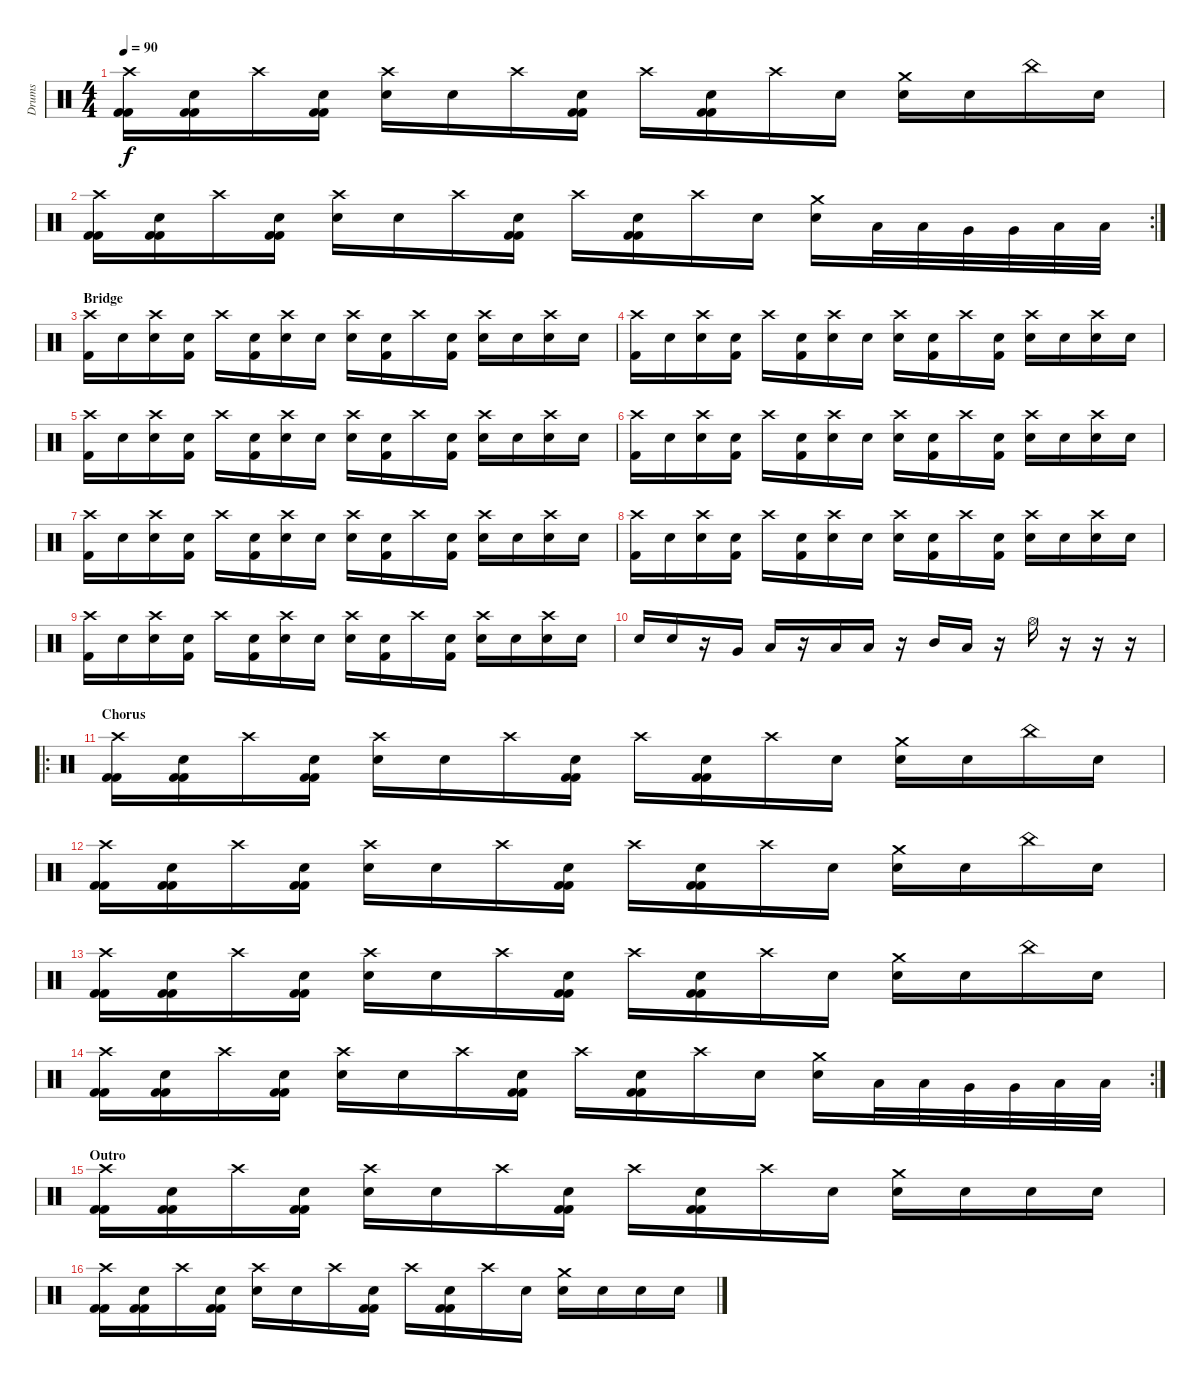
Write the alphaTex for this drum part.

\track ("Drums" "Drums") {instrument percussion}
\staff {score}
\articulation defaults
\ts (4 4)
\tempo 90
\clef neutral
\ks c
("Crash high (hit)" "Kick (hit) 2" "Kick (hit) 2").16{dy f} ("Snare (hit)"{x} "Kick (hit) 2" "Kick (hit) 2").16 "Crash high (hit)".16 ("Snare (hit)"{x} "Kick (hit) 2" "Kick (hit) 2").16 ("Crash high (hit)" "Electric Snare (hit)").16 "Snare (hit)"{x}.16 "Crash high (hit)".16 ("Snare (hit)"{x} "Kick (hit) 2" "Kick (hit) 2").16 "Crash high (hit)".16 ("Snare (hit)"{x} "Kick (hit) 2" "Kick (hit) 2").16 "Crash high (hit)".16 "Snare (hit)"{x}.16 ("Crash medium (hit)" "Electric Snare (hit)").16 "Snare (hit)"{x}.16 "China (hit)".16 "Snare (hit)"{x}.16 |
\rc 2
("Crash high (hit)" "Kick (hit) 2" "Kick (hit) 2").16 ("Snare (hit)"{x} "Kick (hit) 2" "Kick (hit) 2").16 "Crash high (hit)".16 ("Snare (hit)"{x} "Kick (hit) 2" "Kick (hit) 2").16 ("Crash high (hit)" "Electric Snare (hit)").16 "Snare (hit)"{x}.16 "Crash high (hit)".16 ("Snare (hit)"{x} "Kick (hit) 2" "Kick (hit) 2").16 "Crash high (hit)".16 ("Snare (hit)"{x} "Kick (hit) 2" "Kick (hit) 2").16 "Crash high (hit)".16 "Snare (hit)"{x}.16 ("Crash medium (hit)" "Electric Snare (hit)").16 "Low Floor Tom (hit)".32 "Low Floor Tom (hit)".32 "Very Low Tom (hit)".32 "Very Low Tom (hit)".32 "Low Tom (hit)".32 "Low Tom (hit)".32 |
\section ("" "Bridge")
("Crash high (hit)" "Kick (hit) 2").16 "Snare (hit)"{x}.16 ("Crash high (hit)" "Electric Snare (hit)").16 ("Snare (hit)"{x} "Kick (hit) 2").16 "Crash high (hit)".16 ("Snare (hit)"{x} "Kick (hit) 2").16 ("Crash high (hit)" "Electric Snare (hit)").16 "Snare (hit)"{x}.16 ("Crash high (hit)" "Electric Snare (hit)").16 ("Snare (hit)"{x} "Kick (hit) 2").16 "Crash high (hit)".16 ("Snare (hit)"{x} "Kick (hit) 2").16 ("Crash high (hit)" "Electric Snare (hit)").16 "Snare (hit)"{x}.16 ("Crash high (hit)" "Electric Snare (hit)").16 "Snare (hit)"{x}.16 |
("Crash high (hit)" "Kick (hit) 2").16 "Snare (hit)"{x}.16 ("Crash high (hit)" "Electric Snare (hit)").16 ("Snare (hit)"{x} "Kick (hit) 2").16 "Crash high (hit)".16 ("Snare (hit)"{x} "Kick (hit) 2").16 ("Crash high (hit)" "Electric Snare (hit)").16 "Snare (hit)"{x}.16 ("Crash high (hit)" "Electric Snare (hit)").16 ("Snare (hit)"{x} "Kick (hit) 2").16 "Crash high (hit)".16 ("Snare (hit)"{x} "Kick (hit) 2").16 ("Crash high (hit)" "Electric Snare (hit)").16 "Snare (hit)"{x}.16 ("Crash high (hit)" "Electric Snare (hit)").16 "Snare (hit)"{x}.16 |
("Crash high (hit)" "Kick (hit) 2").16 "Snare (hit)"{x}.16 ("Crash high (hit)" "Electric Snare (hit)").16 ("Snare (hit)"{x} "Kick (hit) 2").16 "Crash high (hit)".16 ("Snare (hit)"{x} "Kick (hit) 2").16 ("Crash high (hit)" "Electric Snare (hit)").16 "Snare (hit)"{x}.16 ("Crash high (hit)" "Electric Snare (hit)").16 ("Snare (hit)"{x} "Kick (hit) 2").16 "Crash high (hit)".16 ("Snare (hit)"{x} "Kick (hit) 2").16 ("Crash high (hit)" "Electric Snare (hit)").16 "Snare (hit)"{x}.16 ("Crash high (hit)" "Electric Snare (hit)").16 "Snare (hit)"{x}.16 |
("Crash high (hit)" "Kick (hit) 2").16 "Snare (hit)"{x}.16 ("Crash high (hit)" "Electric Snare (hit)").16 ("Snare (hit)"{x} "Kick (hit) 2").16 "Crash high (hit)".16 ("Snare (hit)"{x} "Kick (hit) 2").16 ("Crash high (hit)" "Electric Snare (hit)").16 "Snare (hit)"{x}.16 ("Crash high (hit)" "Electric Snare (hit)").16 ("Snare (hit)"{x} "Kick (hit) 2").16 "Crash high (hit)".16 ("Snare (hit)"{x} "Kick (hit) 2").16 ("Crash high (hit)" "Electric Snare (hit)").16 "Snare (hit)"{x}.16 ("Crash high (hit)" "Electric Snare (hit)").16 "Snare (hit)"{x}.16 |
("Crash high (hit)" "Kick (hit) 2").16 "Snare (hit)"{x}.16 ("Crash high (hit)" "Electric Snare (hit)").16 ("Snare (hit)"{x} "Kick (hit) 2").16 "Crash high (hit)".16 ("Snare (hit)"{x} "Kick (hit) 2").16 ("Crash high (hit)" "Electric Snare (hit)").16 "Snare (hit)"{x}.16 ("Crash high (hit)" "Electric Snare (hit)").16 ("Snare (hit)"{x} "Kick (hit) 2").16 "Crash high (hit)".16 ("Snare (hit)"{x} "Kick (hit) 2").16 ("Crash high (hit)" "Electric Snare (hit)").16 "Snare (hit)"{x}.16 ("Crash high (hit)" "Electric Snare (hit)").16 "Snare (hit)"{x}.16 |
("Crash high (hit)" "Kick (hit) 2").16 "Snare (hit)"{x}.16 ("Crash high (hit)" "Electric Snare (hit)").16 ("Snare (hit)"{x} "Kick (hit) 2").16 "Crash high (hit)".16 ("Snare (hit)"{x} "Kick (hit) 2").16 ("Crash high (hit)" "Electric Snare (hit)").16 "Snare (hit)"{x}.16 ("Crash high (hit)" "Electric Snare (hit)").16 ("Snare (hit)"{x} "Kick (hit) 2").16 "Crash high (hit)".16 ("Snare (hit)"{x} "Kick (hit) 2").16 ("Crash high (hit)" "Electric Snare (hit)").16 "Snare (hit)"{x}.16 ("Crash high (hit)" "Electric Snare (hit)").16 "Snare (hit)"{x}.16 |
("Crash high (hit)" "Kick (hit) 2").16 "Snare (hit)"{x}.16 ("Crash high (hit)" "Electric Snare (hit)").16 ("Snare (hit)"{x} "Kick (hit) 2").16 "Crash high (hit)".16 ("Snare (hit)"{x} "Kick (hit) 2").16 ("Crash high (hit)" "Electric Snare (hit)").16 "Snare (hit)"{x}.16 ("Crash high (hit)" "Electric Snare (hit)").16 ("Snare (hit)"{x} "Kick (hit) 2").16 "Crash high (hit)".16 ("Snare (hit)"{x} "Kick (hit) 2").16 ("Crash high (hit)" "Electric Snare (hit)").16 "Snare (hit)"{x}.16 ("Crash high (hit)" "Electric Snare (hit)").16 "Snare (hit)"{x}.16 |
"Electric Snare (hit)".16 "Electric Snare (hit)".16 r.16 "Very Low Tom (hit)".16 "Low Floor Tom (hit)".16 r.16 "Low Tom (hit)".16 "Low Floor Tom (hit)".16 r.16 "Mid Tom (hit)".16 "Low Floor Tom (hit)".16 r.16 "Hi-Hat (open)".16 r.16 r.16 r.16 |
\ro
\section ("" "Chorus")
("Crash high (hit)" "Kick (hit) 2" "Kick (hit) 2").16 ("Snare (hit)"{x} "Kick (hit) 2" "Kick (hit) 2").16 "Crash high (hit)".16 ("Snare (hit)"{x} "Kick (hit) 2" "Kick (hit) 2").16 ("Crash high (hit)" "Electric Snare (hit)").16 "Snare (hit)"{x}.16 "Crash high (hit)".16 ("Snare (hit)"{x} "Kick (hit) 2" "Kick (hit) 2").16 "Crash high (hit)".16 ("Snare (hit)"{x} "Kick (hit) 2" "Kick (hit) 2").16 "Crash high (hit)".16 "Snare (hit)"{x}.16 ("Crash medium (hit)" "Electric Snare (hit)").16 "Snare (hit)"{x}.16 "China (hit)".16 "Snare (hit)"{x}.16 |
("Crash high (hit)" "Kick (hit) 2" "Kick (hit) 2").16 ("Snare (hit)"{x} "Kick (hit) 2" "Kick (hit) 2").16 "Crash high (hit)".16 ("Snare (hit)"{x} "Kick (hit) 2" "Kick (hit) 2").16 ("Crash high (hit)" "Electric Snare (hit)").16 "Snare (hit)"{x}.16 "Crash high (hit)".16 ("Snare (hit)"{x} "Kick (hit) 2" "Kick (hit) 2").16 "Crash high (hit)".16 ("Snare (hit)"{x} "Kick (hit) 2" "Kick (hit) 2").16 "Crash high (hit)".16 "Snare (hit)"{x}.16 ("Crash medium (hit)" "Electric Snare (hit)").16 "Snare (hit)"{x}.16 "China (hit)".16 "Snare (hit)"{x}.16 |
("Crash high (hit)" "Kick (hit) 2" "Kick (hit) 2").16 ("Snare (hit)"{x} "Kick (hit) 2" "Kick (hit) 2").16 "Crash high (hit)".16 ("Snare (hit)"{x} "Kick (hit) 2" "Kick (hit) 2").16 ("Crash high (hit)" "Electric Snare (hit)").16 "Snare (hit)"{x}.16 "Crash high (hit)".16 ("Snare (hit)"{x} "Kick (hit) 2" "Kick (hit) 2").16 "Crash high (hit)".16 ("Snare (hit)"{x} "Kick (hit) 2" "Kick (hit) 2").16 "Crash high (hit)".16 "Snare (hit)"{x}.16 ("Crash medium (hit)" "Electric Snare (hit)").16 "Snare (hit)"{x}.16 "China (hit)".16 "Snare (hit)"{x}.16 |
\rc 2
("Crash high (hit)" "Kick (hit) 2" "Kick (hit) 2").16 ("Snare (hit)"{x} "Kick (hit) 2" "Kick (hit) 2").16 "Crash high (hit)".16 ("Snare (hit)"{x} "Kick (hit) 2" "Kick (hit) 2").16 ("Crash high (hit)" "Electric Snare (hit)").16 "Snare (hit)"{x}.16 "Crash high (hit)".16 ("Snare (hit)"{x} "Kick (hit) 2" "Kick (hit) 2").16 "Crash high (hit)".16 ("Snare (hit)"{x} "Kick (hit) 2" "Kick (hit) 2").16 "Crash high (hit)".16 "Snare (hit)"{x}.16 ("Crash medium (hit)" "Electric Snare (hit)").16 "Low Floor Tom (hit)".32 "Low Floor Tom (hit)".32 "Very Low Tom (hit)".32 "Very Low Tom (hit)".32 "Low Tom (hit)".32 "Low Tom (hit)".32 |
\section ("" "Outro")
("Crash high (hit)" "Kick (hit) 2" "Kick (hit) 2").16 ("Snare (hit)"{x} "Kick (hit) 2" "Kick (hit) 2").16 "Crash high (hit)".16 ("Snare (hit)"{x} "Kick (hit) 2" "Kick (hit) 2").16 ("Crash high (hit)" "Electric Snare (hit)").16 "Snare (hit)"{x}.16 "Crash high (hit)".16 ("Snare (hit)"{x} "Kick (hit) 2" "Kick (hit) 2").16 "Crash high (hit)".16 ("Snare (hit)"{x} "Kick (hit) 2" "Kick (hit) 2").16 "Crash high (hit)".16 "Snare (hit)"{x}.16 ("Crash medium (hit)"{x} "Electric Snare (hit)").16 "Electric Snare (hit)".16 "Electric Snare (hit)".16 "Electric Snare (hit)".16 |
("Crash high (hit)" "Kick (hit) 2" "Kick (hit) 2").16 ("Snare (hit)"{x} "Kick (hit) 2" "Kick (hit) 2").16 "Crash high (hit)".16 ("Snare (hit)"{x} "Kick (hit) 2" "Kick (hit) 2").16 ("Crash high (hit)" "Electric Snare (hit)").16 "Snare (hit)"{x}.16 "Crash high (hit)".16 ("Snare (hit)"{x} "Kick (hit) 2" "Kick (hit) 2").16 "Crash high (hit)".16 ("Snare (hit)"{x} "Kick (hit) 2" "Kick (hit) 2").16 "Crash high (hit)".16 "Snare (hit)"{x}.16 ("Crash medium (hit)"{x} "Electric Snare (hit)").16 "Electric Snare (hit)".16 "Electric Snare (hit)".16 "Electric Snare (hit)".16
